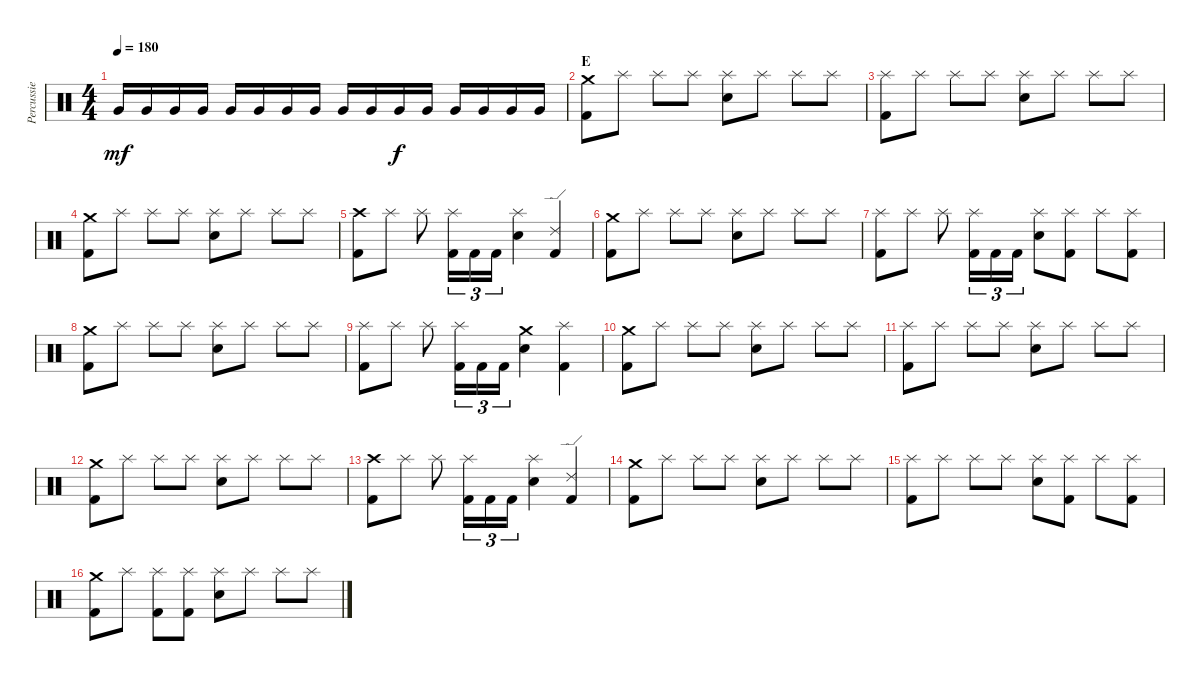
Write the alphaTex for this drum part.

\track ("Percussie" "Percussie") {instrument percussion}
\staff {score}
\articulation defaults
\ts (4 4)
\tempo 180
\clef neutral
\ks c "Very Low Tom (hit)".16{dy mf} "Very Low Tom (hit)".16 "Very Low Tom (hit)".16 "Very Low Tom (hit)".16 "Very Low Tom (hit)".16 "Very Low Tom (hit)".16 "Very Low Tom (hit)".16 "Very Low Tom (hit)".16 "Very Low Tom (hit)".16 "Very Low Tom (hit)".16 "Very Low Tom (hit)".16{dy f} "Very Low Tom (hit)".16 "Very Low Tom (hit)".16 "Very Low Tom (hit)".16 "Very Low Tom (hit)".16 "Very Low Tom (hit)".16
|
\section ("" "E")
("Crash medium (hit)" "Kick (hit) 2").8 "Splash (hit)".8 "Splash (hit)".8 "Splash (hit)".8 ("Splash (hit)" "Electric Snare (hit)").8 "Splash (hit)".8 "Splash (hit)".8 "Splash (hit)".8 |
("Splash (hit)" "Kick (hit) 2").8 "Splash (hit)".8 "Splash (hit)".8 "Splash (hit)".8 ("Splash (hit)" "Electric Snare (hit)").8 "Splash (hit)".8 "Splash (hit)".8 "Splash (hit)".8 |
("Crash medium (hit)" "Kick (hit) 2").8 "Splash (hit)".8 "Splash (hit)".8 "Splash (hit)".8 ("Splash (hit)" "Electric Snare (hit)").8 "Splash (hit)".8 "Splash (hit)".8 "Splash (hit)".8 |
("Crash high (hit)" "Kick (hit) 2").8 "Splash (hit)".8 "Splash (hit)".8 ("Splash (hit)" "Kick (hit) 2").16{tu (3 2)} "Kick (hit) 2".16{tu (3 2)} "Kick (hit) 2".16{tu (3 2)} ("Splash (hit)" "Electric Snare (hit)").4 ("Ride (edge) 2" "Kick (hit) 2").4 |
("Crash medium (hit)" "Kick (hit) 2").8 "Splash (hit)".8 "Splash (hit)".8 "Splash (hit)".8 ("Splash (hit)" "Electric Snare (hit)").8 "Splash (hit)".8 "Splash (hit)".8 "Splash (hit)".8 |
("Splash (hit)" "Kick (hit) 2").8 "Splash (hit)".8 "Splash (hit)".8 ("Splash (hit)" "Kick (hit) 2").16{tu (3 2)} "Kick (hit) 2".16{tu (3 2)} "Kick (hit) 2".16{tu (3 2)} ("Splash (hit)" "Electric Snare (hit)").8 ("Splash (hit)" "Kick (hit) 2").8 "Splash (hit)".8 ("Splash (hit)" "Kick (hit) 2").8 |
("Crash medium (hit)" "Kick (hit) 2").8 "Splash (hit)".8 "Splash (hit)".8 "Splash (hit)".8 ("Splash (hit)" "Electric Snare (hit)").8 "Splash (hit)".8 "Splash (hit)".8 "Splash (hit)".8 |
("Splash (hit)" "Kick (hit) 2").8 "Splash (hit)".8 "Splash (hit)".8 ("Splash (hit)" "Kick (hit) 2").16{tu (3 2)} "Kick (hit) 2".16{tu (3 2)} "Kick (hit) 2".16{tu (3 2)} ("Crash medium (hit)" "Electric Snare (hit)").4 ("Splash (hit)" "Kick (hit) 2").4 |
("Crash medium (hit)" "Kick (hit) 2").8 "Splash (hit)".8 "Splash (hit)".8 "Splash (hit)".8 ("Splash (hit)" "Electric Snare (hit)").8 "Splash (hit)".8 "Splash (hit)".8 "Splash (hit)".8 |
("Splash (hit)" "Kick (hit) 2").8 "Splash (hit)".8 "Splash (hit)".8 "Splash (hit)".8 ("Splash (hit)" "Electric Snare (hit)").8 "Splash (hit)".8 "Splash (hit)".8 "Splash (hit)".8 |
("Crash medium (hit)" "Kick (hit) 2").8 "Splash (hit)".8 "Splash (hit)".8 "Splash (hit)".8 ("Splash (hit)" "Electric Snare (hit)").8 "Splash (hit)".8 "Splash (hit)".8 "Splash (hit)".8 |
("Crash high (hit)" "Kick (hit) 2").8 "Splash (hit)".8 "Splash (hit)".8 ("Splash (hit)" "Kick (hit) 2").16{tu (3 2)} "Kick (hit) 2".16{tu (3 2)} "Kick (hit) 2".16{tu (3 2)} ("Splash (hit)" "Electric Snare (hit)").4 ("Ride (edge) 2" "Kick (hit) 2").4 |
("Crash medium (hit)" "Kick (hit) 2").8 "Splash (hit)".8 "Splash (hit)".8 "Splash (hit)".8 ("Splash (hit)" "Electric Snare (hit)").8 "Splash (hit)".8 "Splash (hit)".8 "Splash (hit)".8 |
("Splash (hit)" "Kick (hit) 2").8 "Splash (hit)".8 "Splash (hit)".8 "Splash (hit)".8 ("Splash (hit)" "Electric Snare (hit)").8 ("Splash (hit)" "Kick (hit) 2").8 "Splash (hit)".8 ("Splash (hit)" "Kick (hit) 2").8 |
("Crash medium (hit)" "Kick (hit) 2").8 "Splash (hit)".8 ("Splash (hit)" "Kick (hit) 2").8 ("Splash (hit)" "Kick (hit) 2").8 ("Splash (hit)" "Electric Snare (hit)").8 "Splash (hit)".8 "Splash (hit)".8 "Splash (hit)".8
